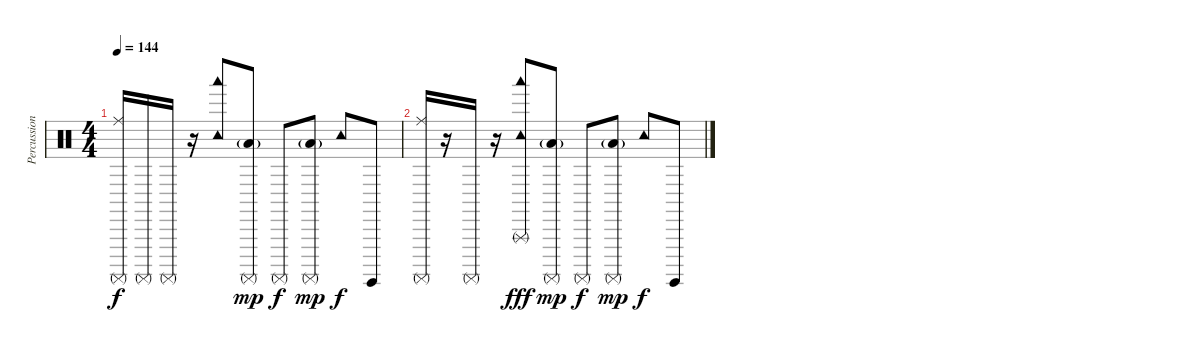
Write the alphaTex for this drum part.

\track ("Percussion" "Percussion") {instrument percussion}
\staff {score}
\articulation defaults
\ts (4 4)
\tempo 144
\clef neutral
\ks c
("Ride (middle)" "Surdo (mute)").16{dy f} "Surdo (mute)".16 "Surdo (mute)".16 r.16 ("Tambourine (hit)" "Woodblock low (hit)").8 ("Low Floor Tom (hit)"{g} "Surdo (mute)").8{dy mp} "Surdo (mute)".8{dy f} ("Low Floor Tom (hit)"{g} "Surdo (mute)").8{dy mp} "Tambourine (hit)".8{dy f} "Surdo (hit)".8 |
("Ride (middle)" "Surdo (mute)").16 r.16 "Surdo (mute)".16 r.16 ("Tambourine (hit)" "Triangle (rnute)" "Woodblock low (hit)").8{dy fff} ("Low Floor Tom (hit)"{g} "Surdo (mute)").8{dy mp} "Surdo (mute)".8{dy f} ("Low Floor Tom (hit)"{g} "Surdo (mute)").8{dy mp} "Tambourine (hit)".8{dy f} "Surdo (hit)".8
